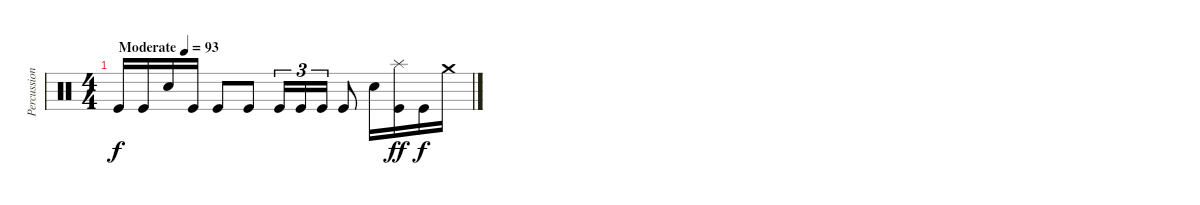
\track ("Percussion" "Percussion") {instrument percussion}
\staff {score}
\articulation defaults
\ts (4 4)
\tempo (93 "Moderate")
\clef neutral
\ks c "Kick (hit)".16{dy f} "Kick (hit)".16 "Snare (hit) 2".16 "Kick (hit)".16 "Kick (hit)".8 "Kick (hit)".8 "Kick (hit)".16{tu (3 2)} "Kick (hit)".16{tu (3 2)} "Kick (hit)".16{tu (3 2)} "Kick (hit)".8 "Snare (hit) 2".16
("Splash (hit)" "Kick (hit)").16{dy ff} "Kick (hit)".16{dy f} "Crash medium (hit)".16
